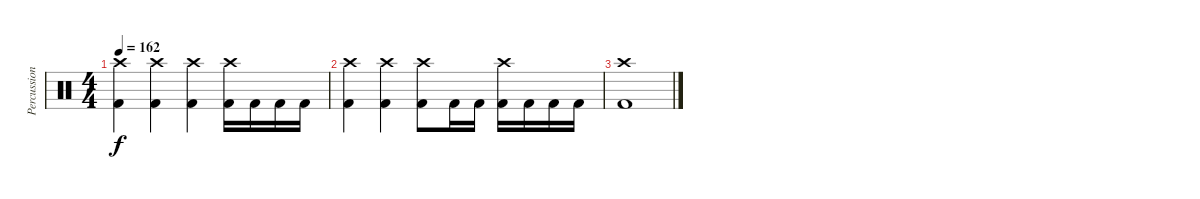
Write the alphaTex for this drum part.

\track ("Percussion" "Percussion") {instrument percussion}
\staff {score}
\articulation defaults
\ts (4 4)
\tempo 162
\clef neutral
\ks c
("Crash high (hit)" "Kick (hit) 2").4{dy f} ("Crash high (hit)" "Kick (hit) 2").4 ("Crash high (hit)" "Kick (hit) 2").4 ("Crash high (hit)" "Kick (hit) 2").16 "Kick (hit) 2".16 "Kick (hit) 2".16 "Kick (hit) 2".16 |
("Crash high (hit)" "Kick (hit) 2").4 ("Crash high (hit)" "Kick (hit) 2").4 ("Crash high (hit)" "Kick (hit) 2").8 "Kick (hit) 2".16 "Kick (hit) 2".16 ("Crash high (hit)" "Kick (hit) 2").16 "Kick (hit) 2".16 "Kick (hit) 2".16 "Kick (hit) 2".16 |
("Crash high (hit)" "Kick (hit) 2").1
